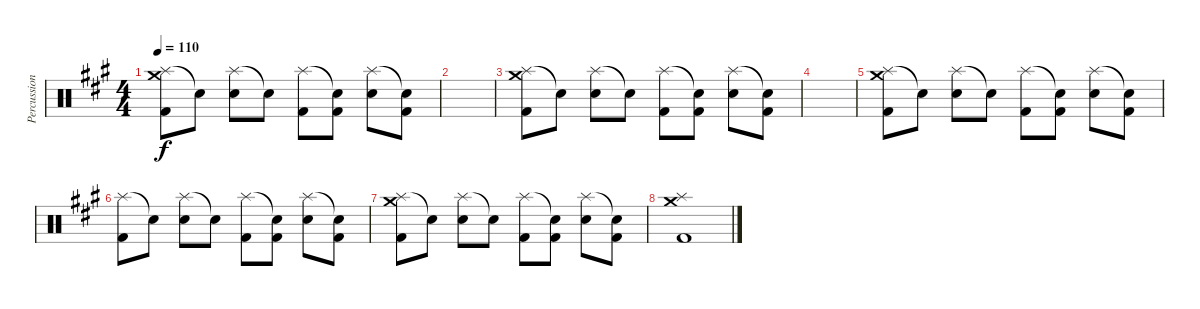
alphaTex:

\track ("Percussion" "Percussion") {instrument percussion}
\staff {score}
\articulation defaults
\ts (4 4)
\tempo 110
\clef neutral
\ks a
("Splash (hit)" "Crash medium (hit)" "Kick (hit) 2").8{dy f} "Snare (hit)"{t}.8 ("Splash (hit)" "Electric Snare (hit)").8 "Snare (hit)"{t}.8 ("Splash (hit)" "Kick (hit) 2").8 ("Snare (hit)"{t} "Kick (hit) 2").8 ("Splash (hit)" "Electric Snare (hit)").8 ("Snare (hit)"{t} "Kick (hit) 2").8 |
|
("Splash (hit)" "Crash medium (hit)" "Kick (hit) 2").8 "Snare (hit)"{t}.8 ("Splash (hit)" "Electric Snare (hit)").8 "Snare (hit)"{t}.8 ("Splash (hit)" "Kick (hit) 2").8 ("Snare (hit)"{t} "Kick (hit) 2").8 ("Splash (hit)" "Electric Snare (hit)").8 ("Snare (hit)"{t} "Kick (hit) 2").8 |
|
("Splash (hit)" "Crash medium (hit)" "Kick (hit) 2").8 "Snare (hit)"{t}.8 ("Splash (hit)" "Electric Snare (hit)").8 "Snare (hit)"{t}.8 ("Splash (hit)" "Kick (hit) 2").8 ("Snare (hit)"{t} "Kick (hit) 2").8 ("Splash (hit)" "Electric Snare (hit)").8 ("Snare (hit)"{t} "Kick (hit) 2").8 |
("Splash (hit)" "Kick (hit) 2").8 "Snare (hit)"{t}.8 ("Splash (hit)" "Electric Snare (hit)").8 "Snare (hit)"{t}.8 ("Splash (hit)" "Kick (hit) 2").8 ("Snare (hit)"{t} "Kick (hit) 2").8 ("Splash (hit)" "Electric Snare (hit)").8 ("Snare (hit)"{t} "Kick (hit) 2").8 |
("Splash (hit)" "Crash medium (hit)" "Kick (hit) 2").8 "Snare (hit)"{t}.8 ("Splash (hit)" "Electric Snare (hit)").8 "Snare (hit)"{t}.8 ("Splash (hit)" "Kick (hit) 2").8 ("Snare (hit)"{t} "Kick (hit) 2").8 ("Splash (hit)" "Electric Snare (hit)").8 ("Snare (hit)"{t} "Kick (hit) 2").8 |
("Splash (hit)" "Crash medium (hit)" "Kick (hit) 2").1
